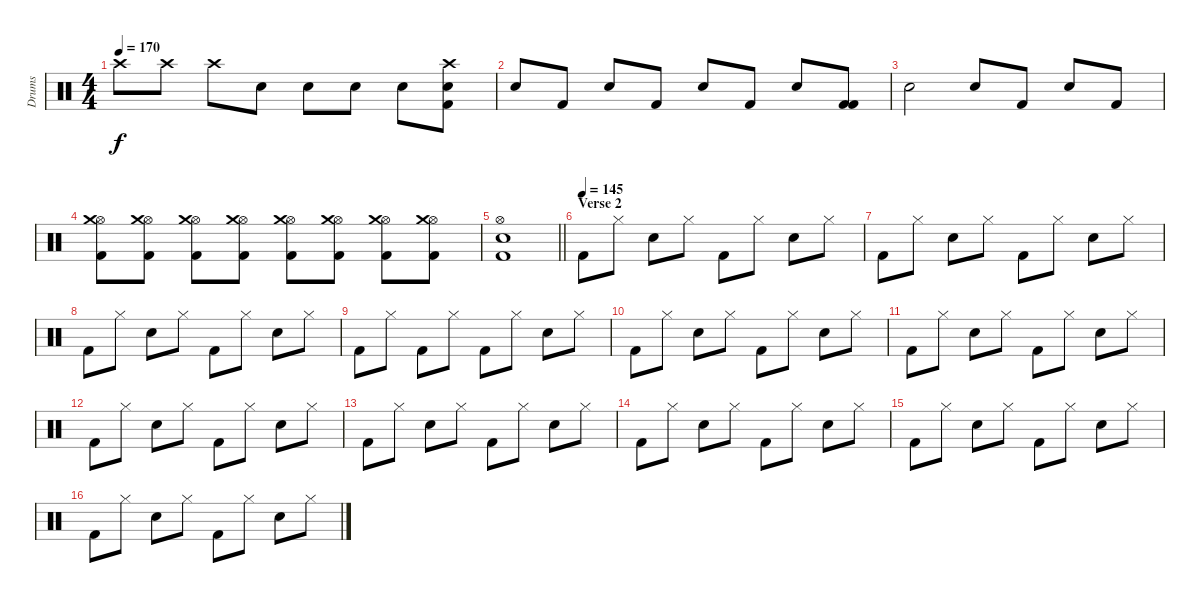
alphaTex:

\track ("Drums" "Drums") {instrument percussion}
\staff {score}
\articulation defaults
\ts (4 4)
\tempo 170
\clef neutral
\ks c "Crash high (hit)".8{dy f} "Crash high (hit)".8 "Crash high (hit)".8 "Electric Snare (hit)".8 "Electric Snare (hit)".8 "Electric Snare (hit)".8 "Electric Snare (hit)".8
("Electric Snare (hit)" "Crash high (hit)" "Kick (hit) 2").8 |
"Electric Snare (hit)".8 "Kick (hit) 2".8 "Electric Snare (hit)".8 "Kick (hit) 2".8 "Electric Snare (hit)".8 "Kick (hit) 2".8 "Electric Snare (hit)".8 ("Kick (hit) 2" "Kick (hit) 2").8 |
"Electric Snare (hit)".2 "Electric Snare (hit)".8 "Kick (hit) 2".8 "Electric Snare (hit)".8 "Kick (hit) 2".8 |
("Hi-Hat (open)" "Crash medium (hit)" "Kick (hit) 2").8 ("Hi-Hat (open)" "Crash medium (hit)" "Kick (hit) 2").8 ("Hi-Hat (open)" "Crash medium (hit)" "Kick (hit) 2").8 ("Hi-Hat (open)" "Crash medium (hit)" "Kick (hit) 2").8 ("Hi-Hat (open)" "Crash medium (hit)" "Kick (hit) 2").8 ("Hi-Hat (open)" "Crash medium (hit)" "Kick (hit) 2").8 ("Hi-Hat (open)" "Crash medium (hit)" "Kick (hit) 2").8 ("Hi-Hat (open)" "Crash medium (hit)" "Kick (hit) 2").8 |
\barLineRight lightlight
("Hi-Hat (open)" "Electric Snare (hit)" "Kick (hit) 2").1 |
\section ("" "Verse 2")
\tempo (145)
"Kick (hit) 2".8 "Hi-Hat (closed)".8 "Electric Snare (hit)".8 "Hi-Hat (closed)".8 "Kick (hit) 2".8 "Hi-Hat (closed)".8 "Electric Snare (hit)".8 "Hi-Hat (closed)".8 |
"Kick (hit) 2".8 "Hi-Hat (closed)".8 "Electric Snare (hit)".8 "Hi-Hat (closed)".8 "Kick (hit) 2".8 "Hi-Hat (closed)".8 "Electric Snare (hit)".8 "Hi-Hat (closed)".8 |
"Kick (hit) 2".8 "Hi-Hat (closed)".8 "Electric Snare (hit)".8 "Hi-Hat (closed)".8 "Kick (hit) 2".8 "Hi-Hat (closed)".8 "Electric Snare (hit)".8 "Hi-Hat (closed)".8 |
"Kick (hit) 2".8 "Hi-Hat (closed)".8 "Kick (hit) 2".8 "Hi-Hat (closed)".8 "Kick (hit) 2".8 "Hi-Hat (closed)".8 "Electric Snare (hit)".8 "Hi-Hat (closed)".8 |
"Kick (hit) 2".8 "Hi-Hat (closed)".8 "Electric Snare (hit)".8 "Hi-Hat (closed)".8 "Kick (hit) 2".8 "Hi-Hat (closed)".8 "Electric Snare (hit)".8 "Hi-Hat (closed)".8 |
"Kick (hit) 2".8 "Hi-Hat (closed)".8 "Electric Snare (hit)".8 "Hi-Hat (closed)".8 "Kick (hit) 2".8 "Hi-Hat (closed)".8 "Electric Snare (hit)".8 "Hi-Hat (closed)".8 |
"Kick (hit) 2".8 "Hi-Hat (closed)".8 "Electric Snare (hit)".8 "Hi-Hat (closed)".8 "Kick (hit) 2".8 "Hi-Hat (closed)".8 "Electric Snare (hit)".8 "Hi-Hat (closed)".8 |
"Kick (hit) 2".8 "Hi-Hat (closed)".8 "Electric Snare (hit)".8 "Hi-Hat (closed)".8 "Kick (hit) 2".8 "Hi-Hat (closed)".8 "Electric Snare (hit)".8 "Hi-Hat (closed)".8 |
"Kick (hit) 2".8 "Hi-Hat (closed)".8 "Electric Snare (hit)".8 "Hi-Hat (closed)".8 "Kick (hit) 2".8 "Hi-Hat (closed)".8 "Electric Snare (hit)".8 "Hi-Hat (closed)".8 |
"Kick (hit) 2".8 "Hi-Hat (closed)".8 "Electric Snare (hit)".8 "Hi-Hat (closed)".8 "Kick (hit) 2".8 "Hi-Hat (closed)".8 "Electric Snare (hit)".8 "Hi-Hat (closed)".8 |
"Kick (hit) 2".8 "Hi-Hat (closed)".8 "Electric Snare (hit)".8 "Hi-Hat (closed)".8 "Kick (hit) 2".8 "Hi-Hat (closed)".8 "Electric Snare (hit)".8 "Hi-Hat (closed)".8
